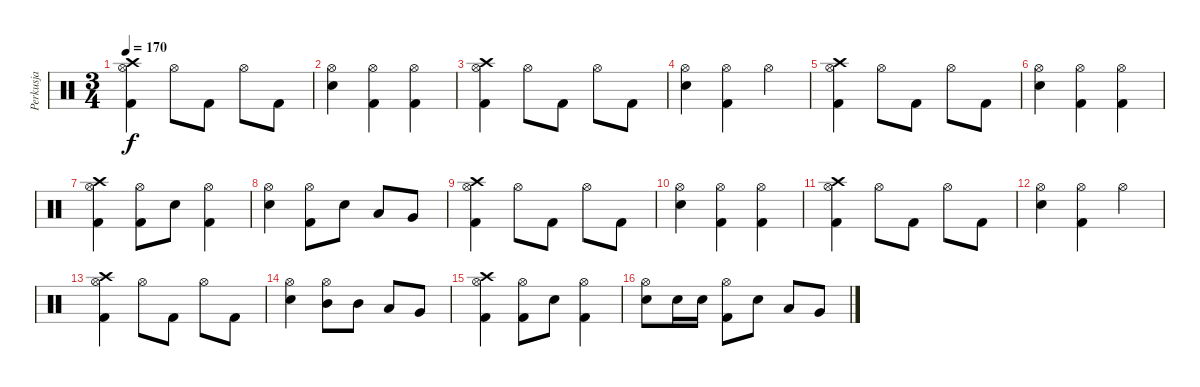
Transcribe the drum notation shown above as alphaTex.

\track ("Perkusja" "Perkusja") {instrument percussion}
\staff {score}
\articulation defaults
\ts (3 4)
\tempo 170
\clef neutral
\ks c
("Hi-Hat (open)" "Kick (hit) 2" "Crash high (hit)").4{dy f} "Hi-Hat (open)".8 "Kick (hit) 2".8 "Hi-Hat (open)".8 "Kick (hit) 2".8 |
("Hi-Hat (open)" "Snare (hit) 2").4 ("Hi-Hat (open)" "Kick (hit) 2").4 ("Hi-Hat (open)" "Kick (hit) 2").4 |
("Hi-Hat (open)" "Kick (hit) 2" "Crash high (hit)").4 "Hi-Hat (open)".8 "Kick (hit) 2".8 "Hi-Hat (open)".8 "Kick (hit) 2".8 |
("Hi-Hat (open)" "Snare (hit) 2").4 ("Hi-Hat (open)" "Kick (hit) 2").4 "Hi-Hat (open)".4 |
("Hi-Hat (open)" "Kick (hit) 2" "Crash high (hit)").4 "Hi-Hat (open)".8 "Kick (hit) 2".8 "Hi-Hat (open)".8 "Kick (hit) 2".8 |
("Hi-Hat (open)" "Snare (hit) 2").4 ("Hi-Hat (open)" "Kick (hit) 2").4 ("Hi-Hat (open)" "Kick (hit) 2").4 |
("Hi-Hat (open)" "Kick (hit) 2" "Crash high (hit)").4 ("Hi-Hat (open)" "Kick (hit) 2").8 "Snare (hit) 2".8 ("Hi-Hat (open)" "Kick (hit) 2").4 |
("Hi-Hat (open)" "Snare (hit) 2").4 ("Hi-Hat (open)" "Kick (hit) 2").8 "Snare (hit) 2".8 "Low Tom (hit)".8 "Very Low Tom (hit)".8 |
("Hi-Hat (open)" "Kick (hit) 2" "Crash high (hit)").4 "Hi-Hat (open)".8 "Kick (hit) 2".8 "Hi-Hat (open)".8 "Kick (hit) 2".8 |
("Hi-Hat (open)" "Snare (hit) 2").4 ("Hi-Hat (open)" "Kick (hit) 2").4 ("Hi-Hat (open)" "Kick (hit) 2").4 |
("Hi-Hat (open)" "Kick (hit) 2" "Crash high (hit)").4 "Hi-Hat (open)".8 "Kick (hit) 2".8 "Hi-Hat (open)".8 "Kick (hit) 2".8 |
("Hi-Hat (open)" "Snare (hit) 2").4 ("Hi-Hat (open)" "Kick (hit) 2").4 "Hi-Hat (open)".4 |
("Hi-Hat (open)" "Kick (hit) 2" "Crash high (hit)").4 "Hi-Hat (open)".8 "Kick (hit) 2".8 "Hi-Hat (open)".8 "Kick (hit) 2".8 |
("Hi-Hat (open)" "Snare (hit) 2").4 ("Hi-Hat (open)" "Mid Tom (hit)").8 "Mid Tom (hit)".8 "Low Tom (hit)".8 "Very Low Tom (hit)".8 |
("Hi-Hat (open)" "Kick (hit) 2" "Crash high (hit)").4 ("Hi-Hat (open)" "Kick (hit) 2").8 "Snare (hit) 2".8 ("Hi-Hat (open)" "Kick (hit) 2").4 |
("Hi-Hat (open)" "Snare (hit) 2").8 "Snare (hit) 2".16 "Snare (hit) 2".16 ("Hi-Hat (open)" "Kick (hit) 2").8 "Snare (hit) 2".8 "Low Tom (hit)".8 "Very Low Tom (hit)".8
